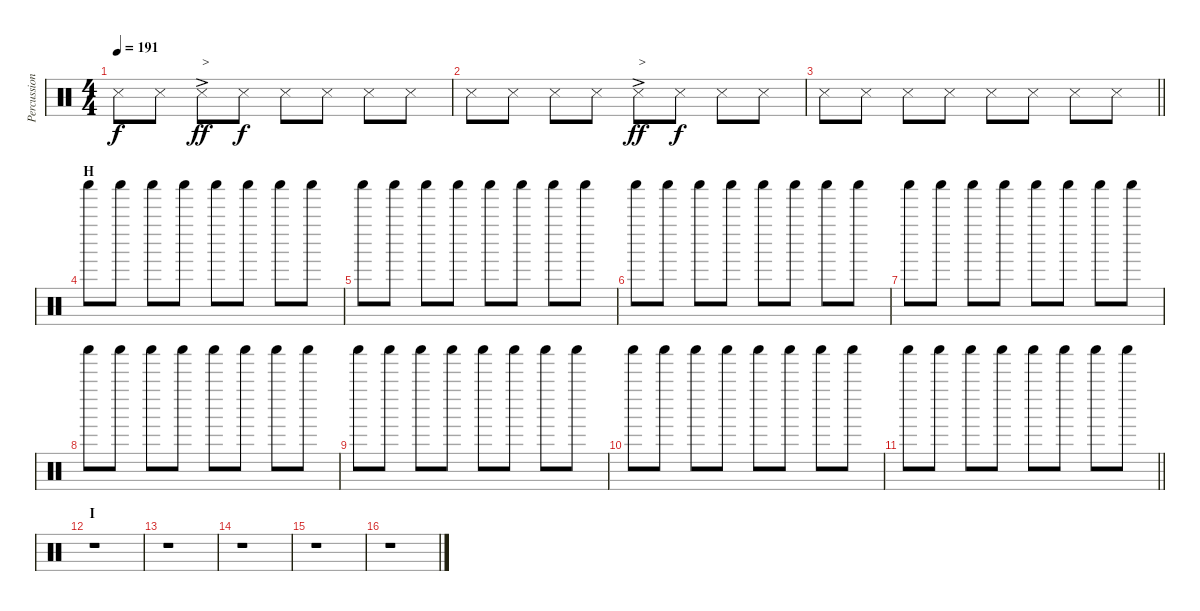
\track ("Percussion" "Percussion") {instrument percussion}
\staff {score}
\articulation defaults
\ts (4 4)
\tempo 191
\clef neutral
\ks c "Snare (side stick) 3".8{dy f} "Snare (side stick) 3".8 "Snare (side stick) 3"{ac}.8{txt ">" dy ff} "Snare (side stick) 3".8{dy f} "Snare (side stick) 3".8 "Snare (side stick) 3".8 "Snare (side stick) 3".8 "Snare (side stick) 3".8
|
"Snare (side stick) 3".8 "Snare (side stick) 3".8 "Snare (side stick) 3".8 "Snare (side stick) 3".8 "Snare (side stick) 3"{ac}.8{txt ">" dy ff} "Snare (side stick) 3".8{dy f} "Snare (side stick) 3".8 "Snare (side stick) 3".8 |
\barLineRight lightlight "Snare (side stick) 3".8 "Snare (side stick) 3".8 "Snare (side stick) 3".8 "Snare (side stick) 3".8 "Snare (side stick) 3".8 "Snare (side stick) 3".8 "Snare (side stick) 3".8 "Snare (side stick) 3".8
|
\section ("" "H")
"Shaker (hit)".8 "Shaker (hit)".8 "Shaker (hit)".8 "Shaker (hit)".8 "Shaker (hit)".8 "Shaker (hit)".8 "Shaker (hit)".8 "Shaker (hit)".8 |
"Shaker (hit)".8 "Shaker (hit)".8 "Shaker (hit)".8 "Shaker (hit)".8 "Shaker (hit)".8 "Shaker (hit)".8 "Shaker (hit)".8 "Shaker (hit)".8 |
"Shaker (hit)".8 "Shaker (hit)".8 "Shaker (hit)".8 "Shaker (hit)".8 "Shaker (hit)".8 "Shaker (hit)".8 "Shaker (hit)".8 "Shaker (hit)".8 |
"Shaker (hit)".8 "Shaker (hit)".8 "Shaker (hit)".8 "Shaker (hit)".8 "Shaker (hit)".8 "Shaker (hit)".8 "Shaker (hit)".8 "Shaker (hit)".8 |
"Shaker (hit)".8 "Shaker (hit)".8 "Shaker (hit)".8 "Shaker (hit)".8 "Shaker (hit)".8 "Shaker (hit)".8 "Shaker (hit)".8 "Shaker (hit)".8 |
"Shaker (hit)".8 "Shaker (hit)".8 "Shaker (hit)".8 "Shaker (hit)".8 "Shaker (hit)".8 "Shaker (hit)".8 "Shaker (hit)".8 "Shaker (hit)".8 |
"Shaker (hit)".8 "Shaker (hit)".8 "Shaker (hit)".8 "Shaker (hit)".8 "Shaker (hit)".8 "Shaker (hit)".8 "Shaker (hit)".8 "Shaker (hit)".8 |
\barLineRight lightlight "Shaker (hit)".8 "Shaker (hit)".8 "Shaker (hit)".8 "Shaker (hit)".8 "Shaker (hit)".8 "Shaker (hit)".8 "Shaker (hit)".8 "Shaker (hit)".8
|
\section ("" "I")
r.1 |
r.1 |
r.1 |
r.1 |
r.1
